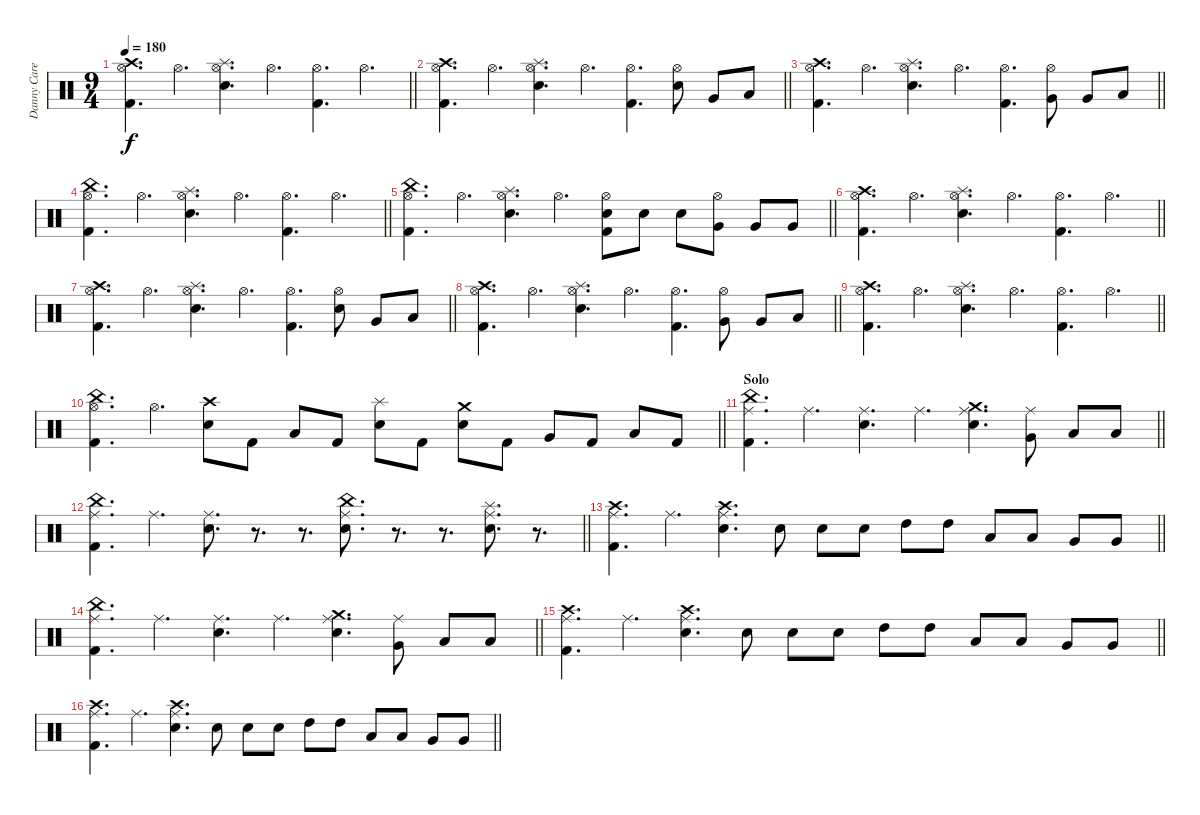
\track ("Danny Carey" "Danny Care") {instrument percussion}
\staff {score}
\articulation defaults
\ts (9 4)
\tempo 180
\clef neutral
\barLineRight lightlight
\ks c
("Crash high (hit)" "Hi-Hat (open)" "Kick (hit) 2").4{d dy f} "Hi-Hat (open)".4{d} ("Splash (hit)" "Hi-Hat (open)" "Electric Snare (hit)").4{d} "Hi-Hat (open)".4{d} ("Hi-Hat (open)" "Kick (hit) 2").4{d} "Hi-Hat (open)".4{d} |
\barLineRight lightlight
("Crash high (hit)" "Hi-Hat (open)" "Kick (hit) 2").4{d} "Hi-Hat (open)".4{d} ("Splash (hit)" "Hi-Hat (open)" "Electric Snare (hit)").4{d} "Hi-Hat (open)".4{d} ("Hi-Hat (open)" "Kick (hit) 2").4{d} ("Hi-Hat (open)" "Electric Snare (hit)").8 "Very Low Tom (hit)".8 "Low Floor Tom (hit)".8 |
\barLineRight lightlight
("Crash high (hit)" "Hi-Hat (open)" "Kick (hit) 2").4{d} "Hi-Hat (open)".4{d} ("Splash (hit)" "Hi-Hat (open)" "Electric Snare (hit)").4{d} "Hi-Hat (open)".4{d} ("Hi-Hat (open)" "Kick (hit) 2").4{d} ("Very Low Tom (hit)" "Hi-Hat (open)").8 "Very Low Tom (hit)".8 "Low Floor Tom (hit)".8 |
\barLineRight lightlight
("China (hit)" "Hi-Hat (open)" "Kick (hit) 2").4{d} "Hi-Hat (open)".4{d} ("Splash (hit)" "Hi-Hat (open)" "Electric Snare (hit)").4{d} "Hi-Hat (open)".4{d} ("Hi-Hat (open)" "Kick (hit) 2").4{d} "Hi-Hat (open)".4{d} |
\barLineRight lightlight
("China (hit)" "Hi-Hat (open)" "Kick (hit) 2").4{d} "Hi-Hat (open)".4{d} ("Splash (hit)" "Hi-Hat (open)" "Electric Snare (hit)").4{d} "Hi-Hat (open)".4{d} ("Hi-Hat (open)" "Electric Snare (hit)" "Kick (hit) 2").8 "Electric Snare (hit)".8 "Electric Snare (hit)".8 ("Hi-Hat (open)" "Very Low Tom (hit)").8 "Very Low Tom (hit)".8 "Very Low Tom (hit)".8 |
\barLineRight lightlight
("Crash high (hit)" "Hi-Hat (open)" "Kick (hit) 2").4{d} "Hi-Hat (open)".4{d} ("Splash (hit)" "Hi-Hat (open)" "Electric Snare (hit)").4{d} "Hi-Hat (open)".4{d} ("Hi-Hat (open)" "Kick (hit) 2").4{d} "Hi-Hat (open)".4{d} |
\barLineRight lightlight
("Crash high (hit)" "Hi-Hat (open)" "Kick (hit) 2").4{d} "Hi-Hat (open)".4{d} ("Splash (hit)" "Hi-Hat (open)" "Electric Snare (hit)").4{d} "Hi-Hat (open)".4{d} ("Hi-Hat (open)" "Kick (hit) 2").4{d} ("Hi-Hat (open)" "Electric Snare (hit)").8 "Very Low Tom (hit)".8 "Low Floor Tom (hit)".8 |
\barLineRight lightlight
("Crash high (hit)" "Hi-Hat (open)" "Kick (hit) 2").4{d} "Hi-Hat (open)".4{d} ("Splash (hit)" "Hi-Hat (open)" "Electric Snare (hit)").4{d} "Hi-Hat (open)".4{d} ("Hi-Hat (open)" "Kick (hit) 2").4{d} ("Very Low Tom (hit)" "Hi-Hat (open)").8 "Very Low Tom (hit)".8 "Low Floor Tom (hit)".8 |
\barLineRight lightlight
("Crash high (hit)" "Hi-Hat (open)" "Kick (hit) 2").4{d} "Hi-Hat (open)".4{d} ("Splash (hit)" "Hi-Hat (open)" "Electric Snare (hit)").4{d} "Hi-Hat (open)".4{d} ("Hi-Hat (open)" "Kick (hit) 2").4{d} "Hi-Hat (open)".4{d} |
\barLineRight lightlight
("China (hit)" "Hi-Hat (open)" "Kick (hit) 2").4{d} "Hi-Hat (open)".4{d} ("Crash high (hit)" "Electric Snare (hit)").8 "Kick (hit) 2".8 "Low Tom (hit)".8 "Kick (hit) 2".8 ("Splash (hit)" "Electric Snare (hit)").8 "Kick (hit) 2".8 ("Crash medium (hit)" "Electric Snare (hit)").8 "Kick (hit) 2".8 "Very Low Tom (hit)".8 "Kick (hit) 2".8 "Low Floor Tom (hit)".8 "Kick (hit) 2".8 |
\section ("" "Solo")
\barLineRight lightlight
("China (hit)" "Ride (middle)" "Kick (hit) 2").4{d} "Ride (middle)".4{d} ("Ride (middle)" "Electric Snare (hit)").4{d} "Ride (middle)".4{d} ("Crash medium (hit)" "Ride (middle)" "Electric Snare (hit)").4{d} ("Ride (middle)" "Very Low Tom (hit)").8 "Low Floor Tom (hit)".8 "Low Floor Tom (hit)".8 |
\barLineRight lightlight
("China (hit)" "Ride (middle)" "Kick (hit) 2").4{d} "Ride (middle)".4{d} ("Ride (middle)" "Electric Snare (hit)").8{d} r.8{d} r.8{d} ("China (hit)" "Ride (middle)" "Electric Snare (hit)").8{d} r.8{d} r.8{d} ("Splash (hit)" "Ride (middle)" "Electric Snare (hit)").8{d} r.8{d} |
\barLineRight lightlight
("Crash high (hit)" "Ride (middle)" "Kick (hit) 2").4{d} "Ride (middle)".4{d} ("Crash high (hit)" "Ride (middle)" "Electric Snare (hit)").4{d} "Electric Snare (hit)".8 "Electric Snare (hit)".8 "Electric Snare (hit)".8 "High Tom (hit)".8 "High Tom (hit)".8 "Low Tom (hit)".8 "Low Tom (hit)".8 "Very Low Tom (hit)".8 "Very Low Tom (hit)".8 |
\barLineRight lightlight
("China (hit)" "Ride (middle)" "Kick (hit) 2").4{d} "Ride (middle)".4{d} ("Ride (middle)" "Electric Snare (hit)").4{d} "Ride (middle)".4{d} ("Crash medium (hit)" "Ride (middle)" "Electric Snare (hit)").4{d} ("Ride (middle)" "Very Low Tom (hit)").8 "Low Floor Tom (hit)".8 "Low Floor Tom (hit)".8 |
\barLineRight lightlight
("Crash high (hit)" "Ride (middle)" "Kick (hit) 2").4{d} "Ride (middle)".4{d} ("Crash high (hit)" "Ride (middle)" "Electric Snare (hit)").4{d} "Electric Snare (hit)".8 "Electric Snare (hit)".8 "Electric Snare (hit)".8 "High Tom (hit)".8 "High Tom (hit)".8 "Low Tom (hit)".8 "Low Tom (hit)".8 "Very Low Tom (hit)".8 "Very Low Tom (hit)".8 |
\barLineRight lightlight
("Crash high (hit)" "Ride (middle)" "Kick (hit) 2").4{d} "Ride (middle)".4{d} ("Crash high (hit)" "Ride (middle)" "Electric Snare (hit)").4{d} "Electric Snare (hit)".8 "Electric Snare (hit)".8 "Electric Snare (hit)".8 "High Tom (hit)".8 "High Tom (hit)".8 "Low Tom (hit)".8 "Low Tom (hit)".8 "Very Low Tom (hit)".8 "Very Low Tom (hit)".8
